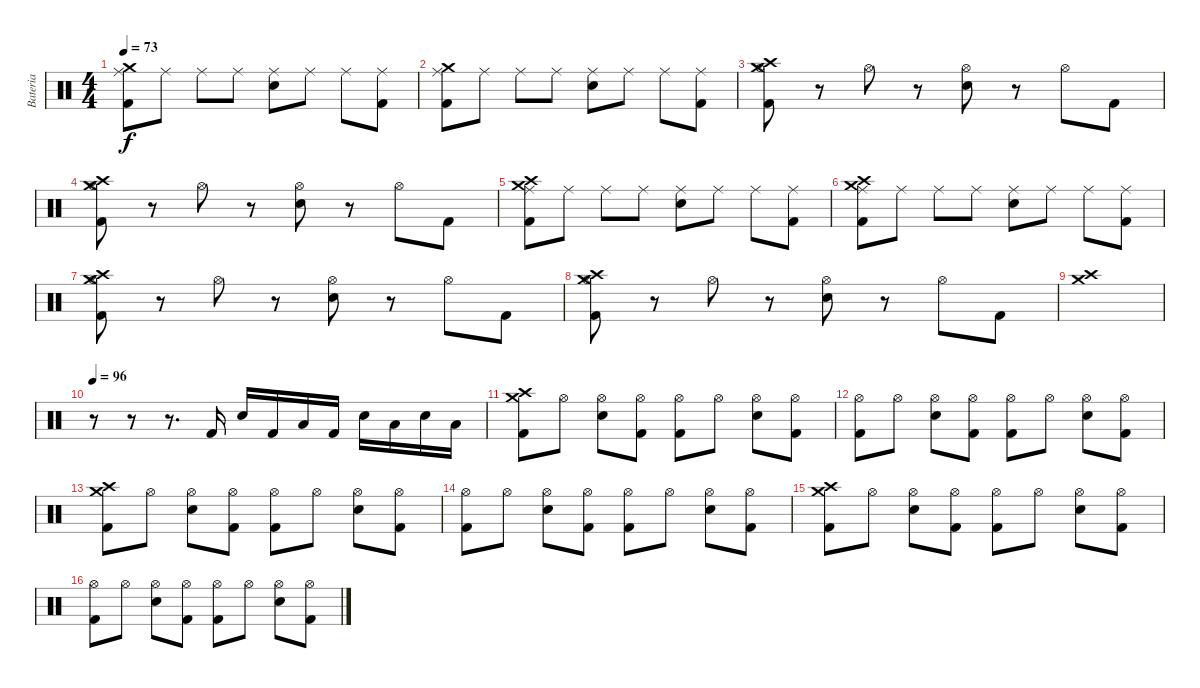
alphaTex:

\track ("Bateria" "Bateria") {instrument percussion}
\staff {score}
\articulation defaults
\ts (4 4)
\tempo 73
\clef neutral
\ks c
("Crash medium (hit)" "Ride (middle)" "Kick (hit) 2").8{dy f} "Ride (middle)".8 "Ride (middle)".8 "Ride (middle)".8 ("Ride (middle)" "Snare (hit) 2").8 "Ride (middle)".8 "Ride (middle)".8 ("Ride (middle)" "Kick (hit) 2").8 |
("Crash medium (hit)" "Ride (middle)" "Kick (hit) 2").8 "Ride (middle)".8 "Ride (middle)".8 "Ride (middle)".8 ("Ride (middle)" "Snare (hit) 2").8 "Ride (middle)".8 "Ride (middle)".8 ("Ride (middle)" "Kick (hit) 2").8 |
("Crash medium (hit)" "Crash high (hit)" "Hi-Hat (open)" "Kick (hit) 2").8 r.8 "Hi-Hat (open)".8 r.8 ("Hi-Hat (open)" "Snare (hit) 2").8 r.8 "Hi-Hat (open)".8 "Kick (hit) 2".8 |
("Crash medium (hit)" "Crash high (hit)" "Hi-Hat (open)" "Kick (hit) 2").8 r.8 "Hi-Hat (open)".8 r.8 ("Hi-Hat (open)" "Snare (hit) 2").8 r.8 "Hi-Hat (open)".8 "Kick (hit) 2".8 |
("Crash medium (hit)" "Crash high (hit)" "Ride (middle)" "Kick (hit) 2").8 "Ride (middle)".8 "Ride (middle)".8 "Ride (middle)".8 ("Ride (middle)" "Snare (hit) 2").8 "Ride (middle)".8 "Ride (middle)".8 ("Ride (middle)" "Kick (hit) 2").8 |
("Crash medium (hit)" "Crash high (hit)" "Ride (middle)" "Kick (hit) 2").8 "Ride (middle)".8 "Ride (middle)".8 "Ride (middle)".8 ("Ride (middle)" "Snare (hit) 2").8 "Ride (middle)".8 "Ride (middle)".8 ("Ride (middle)" "Kick (hit) 2").8 |
("Crash medium (hit)" "Crash high (hit)" "Hi-Hat (open)" "Kick (hit) 2").8 r.8 "Hi-Hat (open)".8 r.8 ("Hi-Hat (open)" "Snare (hit) 2").8 r.8 "Hi-Hat (open)".8 "Kick (hit) 2".8 |
("Crash medium (hit)" "Crash high (hit)" "Hi-Hat (open)" "Kick (hit) 2").8 r.8 "Hi-Hat (open)".8 r.8 ("Hi-Hat (open)" "Snare (hit) 2").8 r.8 "Hi-Hat (open)".8 "Kick (hit) 2".8 |
("Crash high (hit)" "Crash medium (hit)").1 |
\tempo 96
r.8 r.8 r.8{d} "Kick (hit) 2".16 "Snare (hit) 2".16 "Kick (hit) 2".16 "Low Tom (hit)".16 "Kick (hit) 2".16 "Snare (hit) 2".16 "Low Tom (hit)".16 "Snare (hit) 2".16 "Low Tom (hit)".16 |
("Crash high (hit)" "Crash medium (hit)" "Kick (hit) 2").8 "Hi-Hat (open)".8 ("Hi-Hat (open)" "Snare (hit) 2").8 ("Hi-Hat (open)" "Kick (hit) 2").8 ("Hi-Hat (open)" "Kick (hit) 2").8 "Hi-Hat (open)".8 ("Hi-Hat (open)" "Snare (hit) 2").8 ("Hi-Hat (open)" "Kick (hit) 2").8 |
("Hi-Hat (open)" "Kick (hit) 2").8 "Hi-Hat (open)".8 ("Hi-Hat (open)" "Snare (hit) 2").8 ("Hi-Hat (open)" "Kick (hit) 2").8 ("Hi-Hat (open)" "Kick (hit) 2").8 "Hi-Hat (open)".8 ("Hi-Hat (open)" "Snare (hit) 2").8 ("Hi-Hat (open)" "Kick (hit) 2").8 |
("Crash high (hit)" "Crash medium (hit)" "Kick (hit) 2").8 "Hi-Hat (open)".8 ("Hi-Hat (open)" "Snare (hit) 2").8 ("Hi-Hat (open)" "Kick (hit) 2").8 ("Hi-Hat (open)" "Kick (hit) 2").8 "Hi-Hat (open)".8 ("Hi-Hat (open)" "Snare (hit) 2").8 ("Hi-Hat (open)" "Kick (hit) 2").8 |
("Hi-Hat (open)" "Kick (hit) 2").8 "Hi-Hat (open)".8 ("Hi-Hat (open)" "Snare (hit) 2").8 ("Hi-Hat (open)" "Kick (hit) 2").8 ("Hi-Hat (open)" "Kick (hit) 2").8 "Hi-Hat (open)".8 ("Hi-Hat (open)" "Snare (hit) 2").8 ("Hi-Hat (open)" "Kick (hit) 2").8 |
("Crash high (hit)" "Crash medium (hit)" "Kick (hit) 2").8 "Hi-Hat (open)".8 ("Hi-Hat (open)" "Snare (hit) 2").8 ("Hi-Hat (open)" "Kick (hit) 2").8 ("Hi-Hat (open)" "Kick (hit) 2").8 "Hi-Hat (open)".8 ("Hi-Hat (open)" "Snare (hit) 2").8 ("Hi-Hat (open)" "Kick (hit) 2").8 |
("Hi-Hat (open)" "Kick (hit) 2").8 "Hi-Hat (open)".8 ("Hi-Hat (open)" "Snare (hit) 2").8 ("Hi-Hat (open)" "Kick (hit) 2").8 ("Hi-Hat (open)" "Kick (hit) 2").8 "Hi-Hat (open)".8 ("Hi-Hat (open)" "Snare (hit) 2").8 ("Hi-Hat (open)" "Kick (hit) 2").8
